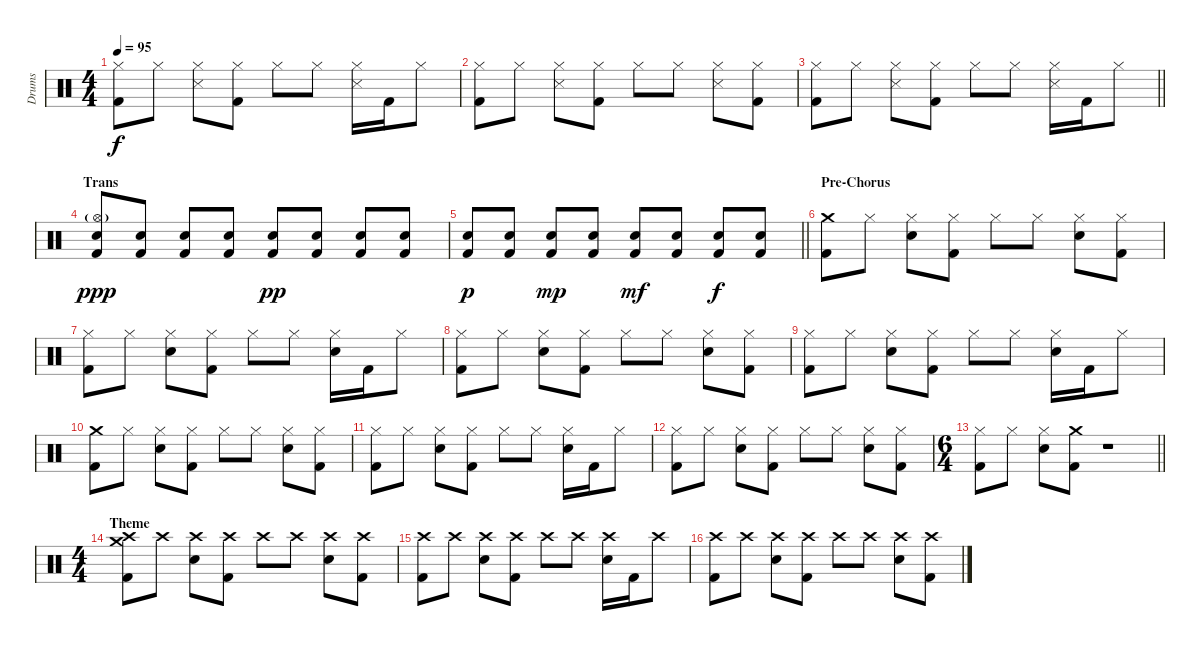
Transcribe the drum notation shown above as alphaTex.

\track ("Drums" "Drums") {instrument percussion}
\staff {score}
\articulation defaults
\ts (4 4)
\tempo 95
\clef neutral
\ks c
("Hi-Hat (closed)" "Kick (hit) 2").8{dy f} "Hi-Hat (closed)".8 ("Hi-Hat (closed)" "Snare (side stick) 3").8 ("Hi-Hat (closed)" "Kick (hit) 2").8 "Hi-Hat (closed)".8 "Hi-Hat (closed)".8 ("Hi-Hat (closed)" "Snare (side stick) 3").16 "Kick (hit) 2".16 "Hi-Hat (closed)".8 |
("Hi-Hat (closed)" "Kick (hit) 2").8 "Hi-Hat (closed)".8 ("Hi-Hat (closed)" "Snare (side stick) 3").8 ("Hi-Hat (closed)" "Kick (hit) 2").8 "Hi-Hat (closed)".8 "Hi-Hat (closed)".8 ("Hi-Hat (closed)" "Snare (side stick) 3").8 ("Hi-Hat (closed)" "Kick (hit) 2").8 |
\barLineRight lightlight
("Hi-Hat (closed)" "Kick (hit) 2").8 "Hi-Hat (closed)".8 ("Hi-Hat (closed)" "Snare (side stick) 3").8 ("Hi-Hat (closed)" "Kick (hit) 2").8 "Hi-Hat (closed)".8 "Hi-Hat (closed)".8 ("Hi-Hat (closed)" "Snare (side stick) 3").16 "Kick (hit) 2".16 "Hi-Hat (closed)".8 |
\section ("" "Trans")
("Hi-Hat (open)"{g} "Snare (hit) 2" "Kick (hit) 2").8{dy ppp} ("Snare (hit) 2" "Kick (hit) 2").8 ("Snare (hit) 2" "Kick (hit) 2").8 ("Snare (hit) 2" "Kick (hit) 2").8 ("Snare (hit) 2" "Kick (hit) 2").8{dy pp} ("Snare (hit) 2" "Kick (hit) 2").8 ("Snare (hit) 2" "Kick (hit) 2").8 ("Snare (hit) 2" "Kick (hit) 2").8 |
\barLineRight lightlight
("Snare (hit) 2" "Kick (hit) 2").8{dy p} ("Snare (hit) 2" "Kick (hit) 2").8 ("Snare (hit) 2" "Kick (hit) 2").8{dy mp} ("Snare (hit) 2" "Kick (hit) 2").8 ("Snare (hit) 2" "Kick (hit) 2").8{dy mf} ("Snare (hit) 2" "Kick (hit) 2").8 ("Snare (hit) 2" "Kick (hit) 2").8{dy f} ("Snare (hit) 2" "Kick (hit) 2").8 |
\section ("" "Pre-Chorus")
("Crash medium (hit)" "Kick (hit) 2").8 "Hi-Hat (closed)".8 ("Hi-Hat (closed)" "Snare (hit) 2").8 ("Hi-Hat (closed)" "Kick (hit) 2").8 "Hi-Hat (closed)".8 "Hi-Hat (closed)".8 ("Hi-Hat (closed)" "Snare (hit) 2").8 ("Hi-Hat (closed)" "Kick (hit) 2").8 |
("Hi-Hat (closed)" "Kick (hit) 2").8 "Hi-Hat (closed)".8 ("Hi-Hat (closed)" "Snare (hit) 2").8 ("Hi-Hat (closed)" "Kick (hit) 2").8 "Hi-Hat (closed)".8 "Hi-Hat (closed)".8 ("Hi-Hat (closed)" "Snare (hit) 2").16 "Kick (hit) 2".16 "Hi-Hat (closed)".8 |
("Hi-Hat (closed)" "Kick (hit) 2").8 "Hi-Hat (closed)".8 ("Hi-Hat (closed)" "Snare (hit) 2").8 ("Hi-Hat (closed)" "Kick (hit) 2").8 "Hi-Hat (closed)".8 "Hi-Hat (closed)".8 ("Hi-Hat (closed)" "Snare (hit) 2").8 ("Hi-Hat (closed)" "Kick (hit) 2").8 |
("Hi-Hat (closed)" "Kick (hit) 2").8 "Hi-Hat (closed)".8 ("Hi-Hat (closed)" "Snare (hit) 2").8 ("Hi-Hat (closed)" "Kick (hit) 2").8 "Hi-Hat (closed)".8 "Hi-Hat (closed)".8 ("Hi-Hat (closed)" "Snare (hit) 2").16 "Kick (hit) 2".16 "Hi-Hat (closed)".8 |
("Crash medium (hit)" "Kick (hit) 2").8 "Hi-Hat (closed)".8 ("Hi-Hat (closed)" "Snare (hit) 2").8 ("Hi-Hat (closed)" "Kick (hit) 2").8 "Hi-Hat (closed)".8 "Hi-Hat (closed)".8 ("Hi-Hat (closed)" "Snare (hit) 2").8 ("Hi-Hat (closed)" "Kick (hit) 2").8 |
("Hi-Hat (closed)" "Kick (hit) 2").8 "Hi-Hat (closed)".8 ("Hi-Hat (closed)" "Snare (hit) 2").8 ("Hi-Hat (closed)" "Kick (hit) 2").8 "Hi-Hat (closed)".8 "Hi-Hat (closed)".8 ("Hi-Hat (closed)" "Snare (hit) 2").16 "Kick (hit) 2".16 "Hi-Hat (closed)".8 |
("Hi-Hat (closed)" "Kick (hit) 2").8 "Hi-Hat (closed)".8 ("Hi-Hat (closed)" "Snare (hit) 2").8 ("Hi-Hat (closed)" "Kick (hit) 2").8 "Hi-Hat (closed)".8 "Hi-Hat (closed)".8 ("Hi-Hat (closed)" "Snare (hit) 2").8 ("Hi-Hat (closed)" "Kick (hit) 2").8 |
\ts (6 4)
\barLineRight lightlight
("Hi-Hat (closed)" "Kick (hit) 2").8 "Hi-Hat (closed)".8 ("Hi-Hat (closed)" "Snare (hit) 2").8 ("Crash medium (hit)" "Kick (hit) 2").8 r.1 |
\ts (4 4)
\section ("" "Theme")
("Crash high (hit)" "Crash medium (hit)" "Kick (hit) 2").8 "Crash high (hit)".8 ("Crash high (hit)" "Snare (hit) 2").8 ("Crash high (hit)" "Kick (hit) 2").8 "Crash high (hit)".8 "Crash high (hit)".8 ("Crash high (hit)" "Snare (hit) 2").8 ("Crash high (hit)" "Kick (hit) 2").8 |
("Crash high (hit)" "Kick (hit) 2").8 "Crash high (hit)".8 ("Crash high (hit)" "Snare (hit) 2").8 ("Crash high (hit)" "Kick (hit) 2").8 "Crash high (hit)".8 "Crash high (hit)".8 ("Crash high (hit)" "Snare (hit) 2").16 "Kick (hit) 2".16 "Crash high (hit)".8 |
("Crash high (hit)" "Kick (hit) 2").8 "Crash high (hit)".8 ("Crash high (hit)" "Snare (hit) 2").8 ("Crash high (hit)" "Kick (hit) 2").8 "Crash high (hit)".8 "Crash high (hit)".8 ("Crash high (hit)" "Snare (hit) 2").8 ("Crash high (hit)" "Kick (hit) 2").8
